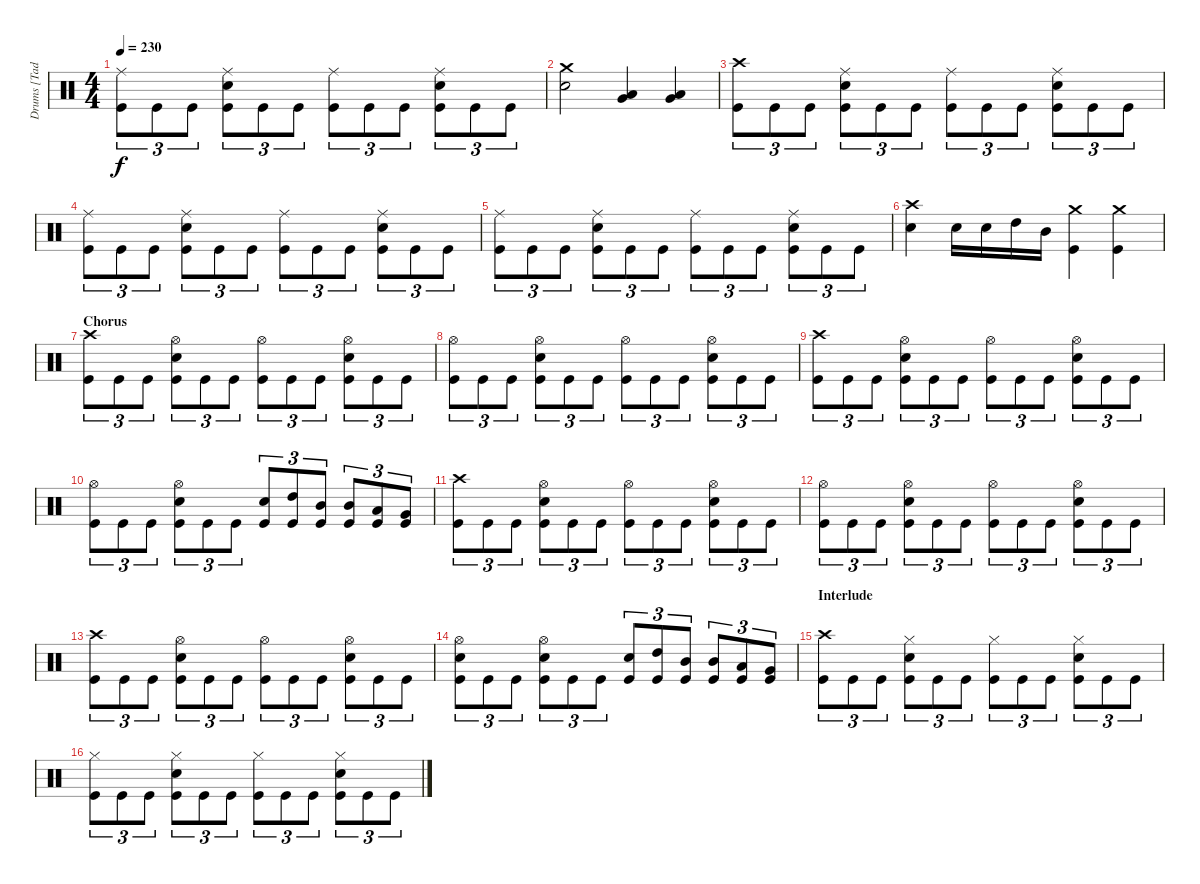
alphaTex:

\track ("Drums [Tad Leger]" "Drums [Tad") {instrument percussion}
\staff {score}
\articulation defaults
\ts (4 4)
\tempo 230
\clef neutral
\ks c
("Ride (middle)" "Kick (hit)").8{tu (3 2) dy f} "Kick (hit)".8{tu (3 2)} "Kick (hit)".8{tu (3 2)} ("Ride (middle)" "Electric Snare (hit)" "Kick (hit)").8{tu (3 2)} "Kick (hit)".8{tu (3 2)} "Kick (hit)".8{tu (3 2)} ("Ride (middle)" "Kick (hit)").8{tu (3 2)} "Kick (hit)".8{tu (3 2)} "Kick (hit)".8{tu (3 2)} ("Ride (middle)" "Electric Snare (hit)" "Kick (hit)").8{tu (3 2)} "Kick (hit)".8{tu (3 2)} "Kick (hit)".8{tu (3 2)} |
("Crash medium (hit)" "Electric Snare (hit)").2 ("Very Low Tom (hit)" "Low Tom (hit)").4 ("Very Low Tom (hit)" "Low Tom (hit)").4 |
("Crash high (hit)" "Kick (hit)").8{tu (3 2)} "Kick (hit)".8{tu (3 2)} "Kick (hit)".8{tu (3 2)} ("Ride (middle)" "Electric Snare (hit)" "Kick (hit)").8{tu (3 2)} "Kick (hit)".8{tu (3 2)} "Kick (hit)".8{tu (3 2)} ("Ride (middle)" "Kick (hit)").8{tu (3 2)} "Kick (hit)".8{tu (3 2)} "Kick (hit)".8{tu (3 2)} ("Ride (middle)" "Electric Snare (hit)" "Kick (hit)").8{tu (3 2)} "Kick (hit)".8{tu (3 2)} "Kick (hit)".8{tu (3 2)} |
("Ride (middle)" "Kick (hit)").8{tu (3 2)} "Kick (hit)".8{tu (3 2)} "Kick (hit)".8{tu (3 2)} ("Ride (middle)" "Electric Snare (hit)" "Kick (hit)").8{tu (3 2)} "Kick (hit)".8{tu (3 2)} "Kick (hit)".8{tu (3 2)} ("Ride (middle)" "Kick (hit)").8{tu (3 2)} "Kick (hit)".8{tu (3 2)} "Kick (hit)".8{tu (3 2)} ("Ride (middle)" "Electric Snare (hit)" "Kick (hit)").8{tu (3 2)} "Kick (hit)".8{tu (3 2)} "Kick (hit)".8{tu (3 2)} |
("Ride (middle)" "Kick (hit)").8{tu (3 2)} "Kick (hit)".8{tu (3 2)} "Kick (hit)".8{tu (3 2)} ("Ride (middle)" "Electric Snare (hit)" "Kick (hit)").8{tu (3 2)} "Kick (hit)".8{tu (3 2)} "Kick (hit)".8{tu (3 2)} ("Ride (middle)" "Kick (hit)").8{tu (3 2)} "Kick (hit)".8{tu (3 2)} "Kick (hit)".8{tu (3 2)} ("Ride (middle)" "Electric Snare (hit)" "Kick (hit)").8{tu (3 2)} "Kick (hit)".8{tu (3 2)} "Kick (hit)".8{tu (3 2)} |
("Crash high (hit)" "Electric Snare (hit)").4 "Electric Snare (hit)".16 "Electric Snare (hit)".16 "High Tom (hit)".16 "Mid Tom (hit)".16 ("Crash medium (hit)" "Kick (hit)").4 ("Crash medium (hit)" "Kick (hit)").4 |
\section ("" "Chorus")
("Crash high (hit)" "Kick (hit)").8{tu (3 2)} "Kick (hit)".8{tu (3 2)} "Kick (hit)".8{tu (3 2)} ("Hi-Hat (open)" "Electric Snare (hit)" "Kick (hit)").8{tu (3 2)} "Kick (hit)".8{tu (3 2)} "Kick (hit)".8{tu (3 2)} ("Hi-Hat (open)" "Kick (hit)").8{tu (3 2)} "Kick (hit)".8{tu (3 2)} "Kick (hit)".8{tu (3 2)} ("Hi-Hat (open)" "Electric Snare (hit)" "Kick (hit)").8{tu (3 2)} "Kick (hit)".8{tu (3 2)} "Kick (hit)".8{tu (3 2)} |
("Hi-Hat (open)" "Kick (hit)").8{tu (3 2)} "Kick (hit)".8{tu (3 2)} "Kick (hit)".8{tu (3 2)} ("Hi-Hat (open)" "Electric Snare (hit)" "Kick (hit)").8{tu (3 2)} "Kick (hit)".8{tu (3 2)} "Kick (hit)".8{tu (3 2)} ("Hi-Hat (open)" "Kick (hit)").8{tu (3 2)} "Kick (hit)".8{tu (3 2)} "Kick (hit)".8{tu (3 2)} ("Hi-Hat (open)" "Electric Snare (hit)" "Kick (hit)").8{tu (3 2)} "Kick (hit)".8{tu (3 2)} "Kick (hit)".8{tu (3 2)} |
("Crash high (hit)" "Kick (hit)").8{tu (3 2)} "Kick (hit)".8{tu (3 2)} "Kick (hit)".8{tu (3 2)} ("Hi-Hat (open)" "Electric Snare (hit)" "Kick (hit)").8{tu (3 2)} "Kick (hit)".8{tu (3 2)} "Kick (hit)".8{tu (3 2)} ("Hi-Hat (open)" "Kick (hit)").8{tu (3 2)} "Kick (hit)".8{tu (3 2)} "Kick (hit)".8{tu (3 2)} ("Hi-Hat (open)" "Electric Snare (hit)" "Kick (hit)").8{tu (3 2)} "Kick (hit)".8{tu (3 2)} "Kick (hit)".8{tu (3 2)} |
("Hi-Hat (open)" "Kick (hit)").8{tu (3 2)} "Kick (hit)".8{tu (3 2)} "Kick (hit)".8{tu (3 2)} ("Hi-Hat (open)" "Electric Snare (hit)" "Kick (hit)").8{tu (3 2)} "Kick (hit)".8{tu (3 2)} "Kick (hit)".8{tu (3 2)} ("Electric Snare (hit)" "Kick (hit)").8{tu (3 2)} ("High Tom (hit)" "Kick (hit)").8{tu (3 2)} ("Mid Tom (hit)" "Kick (hit)").8{tu (3 2)} ("Mid Tom (hit)" "Kick (hit)").8{tu (3 2)} ("Low Tom (hit)" "Kick (hit)").8{tu (3 2)} ("Very Low Tom (hit)" "Kick (hit)").8{tu (3 2)} |
("Crash high (hit)" "Kick (hit)").8{tu (3 2)} "Kick (hit)".8{tu (3 2)} "Kick (hit)".8{tu (3 2)} ("Hi-Hat (open)" "Electric Snare (hit)" "Kick (hit)").8{tu (3 2)} "Kick (hit)".8{tu (3 2)} "Kick (hit)".8{tu (3 2)} ("Hi-Hat (open)" "Kick (hit)").8{tu (3 2)} "Kick (hit)".8{tu (3 2)} "Kick (hit)".8{tu (3 2)} ("Hi-Hat (open)" "Electric Snare (hit)" "Kick (hit)").8{tu (3 2)} "Kick (hit)".8{tu (3 2)} "Kick (hit)".8{tu (3 2)} |
("Hi-Hat (open)" "Kick (hit)").8{tu (3 2)} "Kick (hit)".8{tu (3 2)} "Kick (hit)".8{tu (3 2)} ("Hi-Hat (open)" "Electric Snare (hit)" "Kick (hit)").8{tu (3 2)} "Kick (hit)".8{tu (3 2)} "Kick (hit)".8{tu (3 2)} ("Hi-Hat (open)" "Kick (hit)").8{tu (3 2)} "Kick (hit)".8{tu (3 2)} "Kick (hit)".8{tu (3 2)} ("Hi-Hat (open)" "Electric Snare (hit)" "Kick (hit)").8{tu (3 2)} "Kick (hit)".8{tu (3 2)} "Kick (hit)".8{tu (3 2)} |
("Crash high (hit)" "Kick (hit)").8{tu (3 2)} "Kick (hit)".8{tu (3 2)} "Kick (hit)".8{tu (3 2)} ("Hi-Hat (open)" "Electric Snare (hit)" "Kick (hit)").8{tu (3 2)} "Kick (hit)".8{tu (3 2)} "Kick (hit)".8{tu (3 2)} ("Hi-Hat (open)" "Kick (hit)").8{tu (3 2)} "Kick (hit)".8{tu (3 2)} "Kick (hit)".8{tu (3 2)} ("Hi-Hat (open)" "Electric Snare (hit)" "Kick (hit)").8{tu (3 2)} "Kick (hit)".8{tu (3 2)} "Kick (hit)".8{tu (3 2)} |
("Hi-Hat (open)" "Electric Snare (hit)" "Kick (hit)").8{tu (3 2)} "Kick (hit)".8{tu (3 2)} "Kick (hit)".8{tu (3 2)} ("Hi-Hat (open)" "Electric Snare (hit)" "Kick (hit)").8{tu (3 2)} "Kick (hit)".8{tu (3 2)} "Kick (hit)".8{tu (3 2)} ("Electric Snare (hit)" "Kick (hit)").8{tu (3 2)} ("High Tom (hit)" "Kick (hit)").8{tu (3 2)} ("Mid Tom (hit)" "Kick (hit)").8{tu (3 2)} ("Mid Tom (hit)" "Kick (hit)").8{tu (3 2)} ("Low Tom (hit)" "Kick (hit)").8{tu (3 2)} ("Very Low Tom (hit)" "Kick (hit)").8{tu (3 2)} |
\section ("" "Interlude")
("Crash high (hit)" "Kick (hit)").8{tu (3 2)} "Kick (hit)".8{tu (3 2)} "Kick (hit)".8{tu (3 2)} ("Hi-Hat (closed)" "Electric Snare (hit)" "Kick (hit)").8{tu (3 2)} "Kick (hit)".8{tu (3 2)} "Kick (hit)".8{tu (3 2)} ("Hi-Hat (closed)" "Kick (hit)").8{tu (3 2)} "Kick (hit)".8{tu (3 2)} "Kick (hit)".8{tu (3 2)} ("Hi-Hat (closed)" "Electric Snare (hit)" "Kick (hit)").8{tu (3 2)} "Kick (hit)".8{tu (3 2)} "Kick (hit)".8{tu (3 2)} |
("Hi-Hat (closed)" "Kick (hit)").8{tu (3 2)} "Kick (hit)".8{tu (3 2)} "Kick (hit)".8{tu (3 2)} ("Hi-Hat (closed)" "Electric Snare (hit)" "Kick (hit)").8{tu (3 2)} "Kick (hit)".8{tu (3 2)} "Kick (hit)".8{tu (3 2)} ("Hi-Hat (closed)" "Kick (hit)").8{tu (3 2)} "Kick (hit)".8{tu (3 2)} "Kick (hit)".8{tu (3 2)} ("Hi-Hat (closed)" "Electric Snare (hit)" "Kick (hit)").8{tu (3 2)} "Kick (hit)".8{tu (3 2)} "Kick (hit)".8{tu (3 2)}
